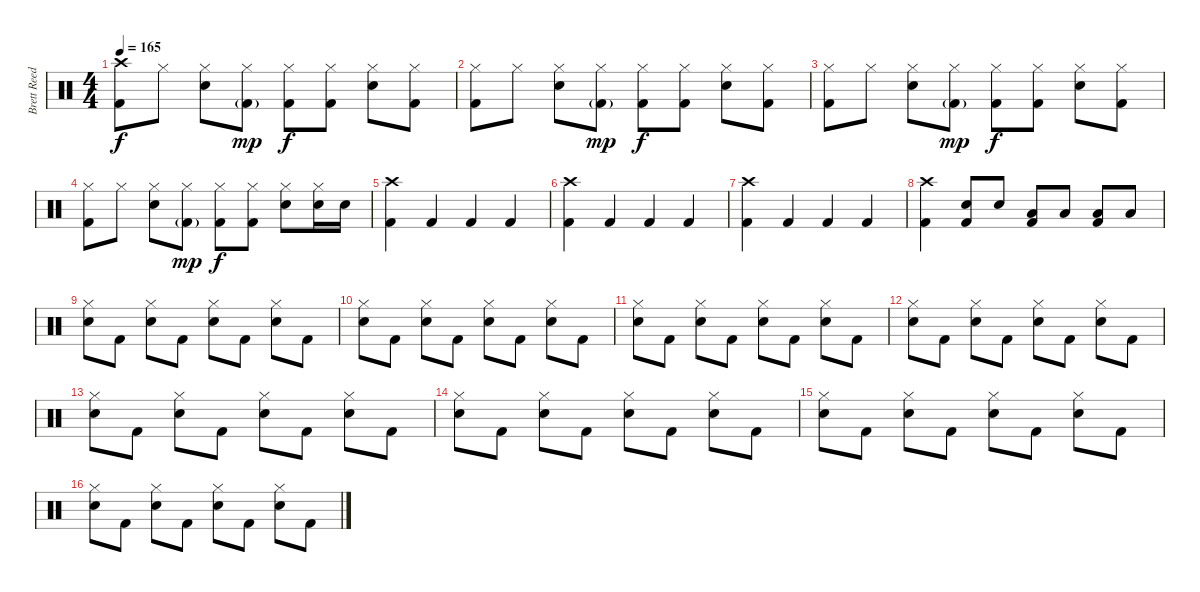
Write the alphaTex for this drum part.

\track ("Brett Reed - Drums" "Brett Reed") {instrument percussion}
\staff {score}
\articulation defaults
\ts (4 4)
\tempo 165
\clef neutral
\ks c
("Crash high (hit)" "Kick (hit) 2").8{dy f} "Hi-Hat (closed)".8 ("Hi-Hat (closed)" "Electric Snare (hit)").8 ("Hi-Hat (closed)" "Kick (hit) 2"{g}).8{dy mp} ("Hi-Hat (closed)" "Kick (hit) 2").8{dy f} ("Hi-Hat (closed)" "Kick (hit) 2").8 ("Hi-Hat (closed)" "Electric Snare (hit)").8 ("Hi-Hat (closed)" "Kick (hit) 2").8 |
("Hi-Hat (closed)" "Kick (hit) 2").8 "Hi-Hat (closed)".8 ("Hi-Hat (closed)" "Electric Snare (hit)").8 ("Hi-Hat (closed)" "Kick (hit) 2"{g}).8{dy mp} ("Hi-Hat (closed)" "Kick (hit) 2").8{dy f} ("Hi-Hat (closed)" "Kick (hit) 2").8 ("Hi-Hat (closed)" "Electric Snare (hit)").8 ("Hi-Hat (closed)" "Kick (hit) 2").8 |
("Hi-Hat (closed)" "Kick (hit) 2").8 "Hi-Hat (closed)".8 ("Hi-Hat (closed)" "Electric Snare (hit)").8 ("Hi-Hat (closed)" "Kick (hit) 2"{g}).8{dy mp} ("Hi-Hat (closed)" "Kick (hit) 2").8{dy f} ("Hi-Hat (closed)" "Kick (hit) 2").8 ("Hi-Hat (closed)" "Electric Snare (hit)").8 ("Hi-Hat (closed)" "Kick (hit) 2").8 |
("Hi-Hat (closed)" "Kick (hit) 2").8 "Hi-Hat (closed)".8 ("Hi-Hat (closed)" "Electric Snare (hit)").8 ("Hi-Hat (closed)" "Kick (hit) 2"{g}).8{dy mp} ("Hi-Hat (closed)" "Kick (hit) 2").8{dy f} ("Hi-Hat (closed)" "Kick (hit) 2").8 ("Hi-Hat (closed)" "Electric Snare (hit)").8 ("Hi-Hat (closed)" "Electric Snare (hit)").16 "Electric Snare (hit)".16 |
("Crash high (hit)" "Kick (hit) 2").4 "Kick (hit) 2".4 "Kick (hit) 2".4 "Kick (hit) 2".4 |
("Crash high (hit)" "Kick (hit) 2").4 "Kick (hit) 2".4 "Kick (hit) 2".4 "Kick (hit) 2".4 |
("Crash high (hit)" "Kick (hit) 2").4 "Kick (hit) 2".4 "Kick (hit) 2".4 "Kick (hit) 2".4 |
("Crash high (hit)" "Kick (hit) 2").4 ("Electric Snare (hit)" "Kick (hit) 2").8 "Electric Snare (hit)".8 ("Low Tom (hit)" "Kick (hit) 2").8 "Low Tom (hit)".8 ("Low Tom (hit)" "Kick (hit) 2").8 "Low Tom (hit)".8 |
("Hi-Hat (closed)" "Electric Snare (hit)").8 "Kick (hit) 2".8 ("Hi-Hat (closed)" "Electric Snare (hit)").8 "Kick (hit) 2".8 ("Hi-Hat (closed)" "Electric Snare (hit)").8 "Kick (hit) 2".8 ("Hi-Hat (closed)" "Electric Snare (hit)").8 "Kick (hit) 2".8 |
("Hi-Hat (closed)" "Electric Snare (hit)").8 "Kick (hit) 2".8 ("Hi-Hat (closed)" "Electric Snare (hit)").8 "Kick (hit) 2".8 ("Hi-Hat (closed)" "Electric Snare (hit)").8 "Kick (hit) 2".8 ("Hi-Hat (closed)" "Electric Snare (hit)").8 "Kick (hit) 2".8 |
("Hi-Hat (closed)" "Electric Snare (hit)").8 "Kick (hit) 2".8 ("Hi-Hat (closed)" "Electric Snare (hit)").8 "Kick (hit) 2".8 ("Hi-Hat (closed)" "Electric Snare (hit)").8 "Kick (hit) 2".8 ("Hi-Hat (closed)" "Electric Snare (hit)").8 "Kick (hit) 2".8 |
("Hi-Hat (closed)" "Electric Snare (hit)").8 "Kick (hit) 2".8 ("Hi-Hat (closed)" "Electric Snare (hit)").8 "Kick (hit) 2".8 ("Hi-Hat (closed)" "Electric Snare (hit)").8 "Kick (hit) 2".8 ("Hi-Hat (closed)" "Electric Snare (hit)").8 "Kick (hit) 2".8 |
("Hi-Hat (closed)" "Electric Snare (hit)").8 "Kick (hit) 2".8 ("Hi-Hat (closed)" "Electric Snare (hit)").8 "Kick (hit) 2".8 ("Hi-Hat (closed)" "Electric Snare (hit)").8 "Kick (hit) 2".8 ("Hi-Hat (closed)" "Electric Snare (hit)").8 "Kick (hit) 2".8 |
("Hi-Hat (closed)" "Electric Snare (hit)").8 "Kick (hit) 2".8 ("Hi-Hat (closed)" "Electric Snare (hit)").8 "Kick (hit) 2".8 ("Hi-Hat (closed)" "Electric Snare (hit)").8 "Kick (hit) 2".8 ("Hi-Hat (closed)" "Electric Snare (hit)").8 "Kick (hit) 2".8 |
("Hi-Hat (closed)" "Electric Snare (hit)").8 "Kick (hit) 2".8 ("Hi-Hat (closed)" "Electric Snare (hit)").8 "Kick (hit) 2".8 ("Hi-Hat (closed)" "Electric Snare (hit)").8 "Kick (hit) 2".8 ("Hi-Hat (closed)" "Electric Snare (hit)").8 "Kick (hit) 2".8 |
("Hi-Hat (closed)" "Electric Snare (hit)").8 "Kick (hit) 2".8 ("Hi-Hat (closed)" "Electric Snare (hit)").8 "Kick (hit) 2".8 ("Hi-Hat (closed)" "Electric Snare (hit)").8 "Kick (hit) 2".8 ("Hi-Hat (closed)" "Electric Snare (hit)").8 "Kick (hit) 2".8
